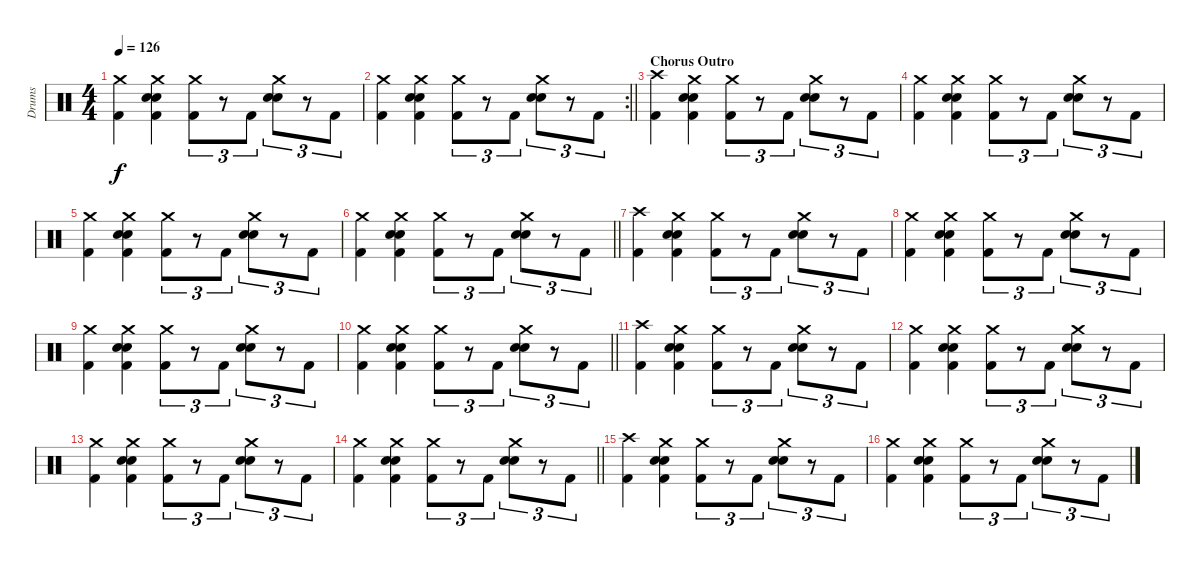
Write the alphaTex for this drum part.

\track ("Drums" "Drums") {instrument percussion}
\staff {score}
\articulation defaults
\ts (4 4)
\tempo 126
\clef neutral
\ks c
("Crash medium (hit)" "Kick (hit) 2").4{dy f} ("Crash medium (hit)" "Electric Snare (hit)" "Hand Clap (hit)" "Kick (hit) 2").4 ("Crash medium (hit)" "Kick (hit) 2").8{tu (3 2)} r.8{tu (3 2)} "Kick (hit) 2".8{tu (3 2)} ("Crash medium (hit)" "Electric Snare (hit)" "Hand Clap (hit)").8{tu (3 2)} r.8{tu (3 2)} "Kick (hit) 2".8{tu (3 2)} |
\rc 2
\barLineRight lightlight
("Crash medium (hit)" "Kick (hit) 2").4 ("Crash medium (hit)" "Electric Snare (hit)" "Hand Clap (hit)" "Kick (hit) 2").4 ("Crash medium (hit)" "Kick (hit) 2").8{tu (3 2)} r.8{tu (3 2)} "Kick (hit) 2".8{tu (3 2)} ("Crash medium (hit)" "Electric Snare (hit)" "Hand Clap (hit)").8{tu (3 2)} r.8{tu (3 2)} "Kick (hit) 2".8{tu (3 2)} |
\section ("" "Chorus Outro")
("Crash high (hit)" "Kick (hit) 2").4 ("Crash medium (hit)" "Electric Snare (hit)" "Hand Clap (hit)" "Kick (hit) 2").4 ("Crash medium (hit)" "Kick (hit) 2").8{tu (3 2)} r.8{tu (3 2)} "Kick (hit) 2".8{tu (3 2)} ("Crash medium (hit)" "Electric Snare (hit)" "Hand Clap (hit)").8{tu (3 2)} r.8{tu (3 2)} "Kick (hit) 2".8{tu (3 2)} |
("Crash medium (hit)" "Kick (hit) 2").4 ("Crash medium (hit)" "Electric Snare (hit)" "Hand Clap (hit)" "Kick (hit) 2").4 ("Crash medium (hit)" "Kick (hit) 2").8{tu (3 2)} r.8{tu (3 2)} "Kick (hit) 2".8{tu (3 2)} ("Crash medium (hit)" "Electric Snare (hit)" "Hand Clap (hit)").8{tu (3 2)} r.8{tu (3 2)} "Kick (hit) 2".8{tu (3 2)} |
("Crash medium (hit)" "Kick (hit) 2").4 ("Crash medium (hit)" "Electric Snare (hit)" "Hand Clap (hit)" "Kick (hit) 2").4 ("Crash medium (hit)" "Kick (hit) 2").8{tu (3 2)} r.8{tu (3 2)} "Kick (hit) 2".8{tu (3 2)} ("Crash medium (hit)" "Electric Snare (hit)" "Hand Clap (hit)").8{tu (3 2)} r.8{tu (3 2)} "Kick (hit) 2".8{tu (3 2)} |
\barLineRight lightlight
("Crash medium (hit)" "Kick (hit) 2").4 ("Crash medium (hit)" "Electric Snare (hit)" "Hand Clap (hit)" "Kick (hit) 2").4 ("Crash medium (hit)" "Kick (hit) 2").8{tu (3 2)} r.8{tu (3 2)} "Kick (hit) 2".8{tu (3 2)} ("Crash medium (hit)" "Electric Snare (hit)" "Hand Clap (hit)").8{tu (3 2)} r.8{tu (3 2)} "Kick (hit) 2".8{tu (3 2)} |
("Crash high (hit)" "Kick (hit) 2").4 ("Crash medium (hit)" "Electric Snare (hit)" "Hand Clap (hit)" "Kick (hit) 2").4 ("Crash medium (hit)" "Kick (hit) 2").8{tu (3 2)} r.8{tu (3 2)} "Kick (hit) 2".8{tu (3 2)} ("Crash medium (hit)" "Electric Snare (hit)" "Hand Clap (hit)").8{tu (3 2)} r.8{tu (3 2)} "Kick (hit) 2".8{tu (3 2)} |
("Crash medium (hit)" "Kick (hit) 2").4 ("Crash medium (hit)" "Electric Snare (hit)" "Hand Clap (hit)" "Kick (hit) 2").4 ("Crash medium (hit)" "Kick (hit) 2").8{tu (3 2)} r.8{tu (3 2)} "Kick (hit) 2".8{tu (3 2)} ("Crash medium (hit)" "Electric Snare (hit)" "Hand Clap (hit)").8{tu (3 2)} r.8{tu (3 2)} "Kick (hit) 2".8{tu (3 2)} |
("Crash medium (hit)" "Kick (hit) 2").4 ("Crash medium (hit)" "Electric Snare (hit)" "Hand Clap (hit)" "Kick (hit) 2").4 ("Crash medium (hit)" "Kick (hit) 2").8{tu (3 2)} r.8{tu (3 2)} "Kick (hit) 2".8{tu (3 2)} ("Crash medium (hit)" "Electric Snare (hit)" "Hand Clap (hit)").8{tu (3 2)} r.8{tu (3 2)} "Kick (hit) 2".8{tu (3 2)} |
\barLineRight lightlight
("Crash medium (hit)" "Kick (hit) 2").4 ("Crash medium (hit)" "Electric Snare (hit)" "Hand Clap (hit)" "Kick (hit) 2").4 ("Crash medium (hit)" "Kick (hit) 2").8{tu (3 2)} r.8{tu (3 2)} "Kick (hit) 2".8{tu (3 2)} ("Crash medium (hit)" "Electric Snare (hit)" "Hand Clap (hit)").8{tu (3 2)} r.8{tu (3 2)} "Kick (hit) 2".8{tu (3 2)} |
("Crash high (hit)" "Kick (hit) 2").4 ("Crash medium (hit)" "Electric Snare (hit)" "Hand Clap (hit)" "Kick (hit) 2").4 ("Crash medium (hit)" "Kick (hit) 2").8{tu (3 2)} r.8{tu (3 2)} "Kick (hit) 2".8{tu (3 2)} ("Crash medium (hit)" "Electric Snare (hit)" "Hand Clap (hit)").8{tu (3 2)} r.8{tu (3 2)} "Kick (hit) 2".8{tu (3 2)} |
("Crash medium (hit)" "Kick (hit) 2").4 ("Crash medium (hit)" "Electric Snare (hit)" "Hand Clap (hit)" "Kick (hit) 2").4 ("Crash medium (hit)" "Kick (hit) 2").8{tu (3 2)} r.8{tu (3 2)} "Kick (hit) 2".8{tu (3 2)} ("Crash medium (hit)" "Electric Snare (hit)" "Hand Clap (hit)").8{tu (3 2)} r.8{tu (3 2)} "Kick (hit) 2".8{tu (3 2)} |
("Crash medium (hit)" "Kick (hit) 2").4 ("Crash medium (hit)" "Electric Snare (hit)" "Hand Clap (hit)" "Kick (hit) 2").4 ("Crash medium (hit)" "Kick (hit) 2").8{tu (3 2)} r.8{tu (3 2)} "Kick (hit) 2".8{tu (3 2)} ("Crash medium (hit)" "Electric Snare (hit)" "Hand Clap (hit)").8{tu (3 2)} r.8{tu (3 2)} "Kick (hit) 2".8{tu (3 2)} |
\barLineRight lightlight
("Crash medium (hit)" "Kick (hit) 2").4 ("Crash medium (hit)" "Electric Snare (hit)" "Hand Clap (hit)" "Kick (hit) 2").4 ("Crash medium (hit)" "Kick (hit) 2").8{tu (3 2)} r.8{tu (3 2)} "Kick (hit) 2".8{tu (3 2)} ("Crash medium (hit)" "Electric Snare (hit)" "Hand Clap (hit)").8{tu (3 2)} r.8{tu (3 2)} "Kick (hit) 2".8{tu (3 2)} |
("Crash high (hit)" "Kick (hit) 2").4 ("Crash medium (hit)" "Electric Snare (hit)" "Hand Clap (hit)" "Kick (hit) 2").4 ("Crash medium (hit)" "Kick (hit) 2").8{tu (3 2)} r.8{tu (3 2)} "Kick (hit) 2".8{tu (3 2)} ("Crash medium (hit)" "Electric Snare (hit)" "Hand Clap (hit)").8{tu (3 2)} r.8{tu (3 2)} "Kick (hit) 2".8{tu (3 2)} |
("Crash medium (hit)" "Kick (hit) 2").4 ("Crash medium (hit)" "Electric Snare (hit)" "Hand Clap (hit)" "Kick (hit) 2").4 ("Crash medium (hit)" "Kick (hit) 2").8{tu (3 2)} r.8{tu (3 2)} "Kick (hit) 2".8{tu (3 2)} ("Crash medium (hit)" "Electric Snare (hit)" "Hand Clap (hit)").8{tu (3 2)} r.8{tu (3 2)} "Kick (hit) 2".8{tu (3 2)}
